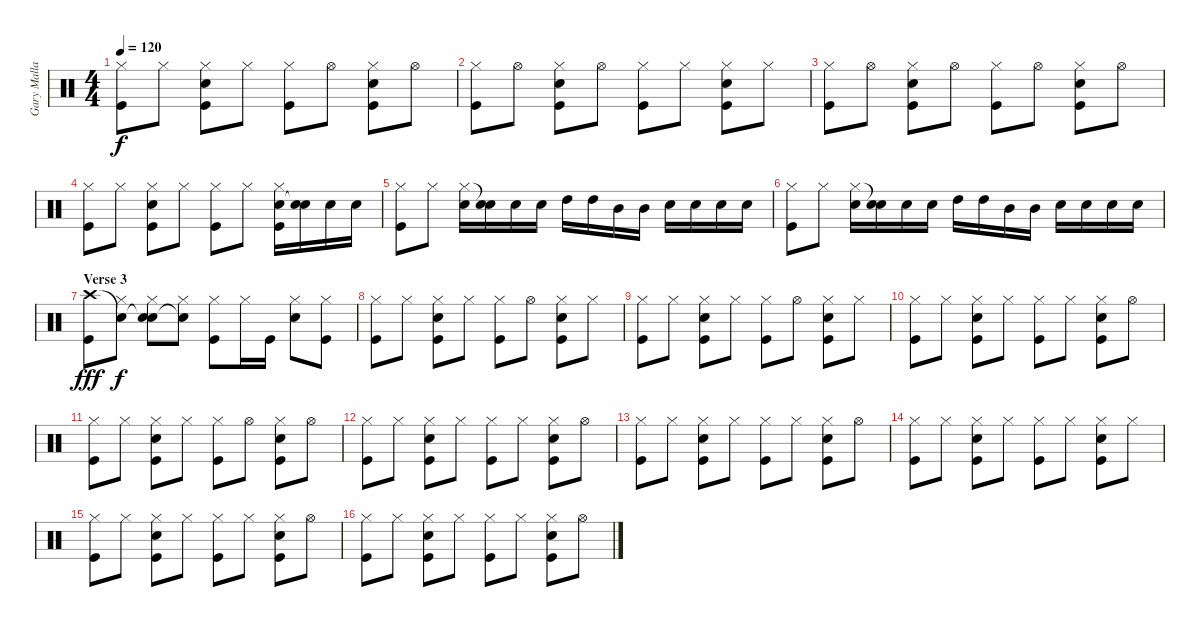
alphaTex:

\track ("Gary Mallaber" "Gary Malla") {instrument percussion}
\staff {score}
\articulation defaults
\ts (4 4)
\tempo 120
\clef neutral
\ks c
("Hi-Hat (closed)" "Kick (hit)").8{dy f} "Hi-Hat (closed)".8 ("Hi-Hat (closed)" "Snare (hit) 2" "Kick (hit)").8 "Hi-Hat (closed)".8 ("Hi-Hat (closed)" "Kick (hit)").8 "Hi-Hat (open)".8 ("Hi-Hat (closed)" "Snare (hit) 2" "Kick (hit)").8 "Hi-Hat (open)".8 |
("Hi-Hat (closed)" "Kick (hit)").8 "Hi-Hat (open)".8 ("Hi-Hat (closed)" "Snare (hit) 2" "Kick (hit)").8 "Hi-Hat (open)".8 ("Hi-Hat (closed)" "Kick (hit)").8 "Hi-Hat (closed)".8 ("Hi-Hat (closed)" "Snare (hit) 2" "Kick (hit)").8 "Hi-Hat (closed)".8 |
("Hi-Hat (closed)" "Kick (hit)").8 "Hi-Hat (open)".8 ("Hi-Hat (closed)" "Snare (hit) 2" "Kick (hit)").8 "Hi-Hat (open)".8 ("Hi-Hat (closed)" "Kick (hit)").8 "Hi-Hat (open)".8 ("Hi-Hat (closed)" "Snare (hit) 2" "Kick (hit)").8 "Hi-Hat (open)".8 |
("Hi-Hat (closed)" "Kick (hit)").8 "Hi-Hat (closed)".8 ("Hi-Hat (closed)" "Snare (hit) 2" "Kick (hit)").8 "Hi-Hat (closed)".8 ("Hi-Hat (closed)" "Kick (hit)").8 "Hi-Hat (closed)".8 ("Hi-Hat (closed)" "Snare (hit) 2" "Kick (hit)").16 ("Snare (hit) 2" "Snare (hit)"{t}).16 "Snare (hit) 2".16 "Snare (hit) 2".16 |
("Hi-Hat (closed)" "Kick (hit)").8 "Hi-Hat (closed)".8 ("Hi-Hat (closed)" "Snare (hit) 2").16 ("Snare (hit)"{t} "Snare (hit) 2").16 "Snare (hit) 2".16 "Snare (hit) 2".16 "High Tom (hit)".16 "High Tom (hit)".16 "Mid Tom (hit)".16 "Mid Tom (hit)".16 "Snare (hit) 2".16 "Snare (hit) 2".16 "Snare (hit) 2".16 "Snare (hit) 2".16 |
("Hi-Hat (closed)" "Kick (hit)").8 "Hi-Hat (closed)".8 ("Hi-Hat (closed)" "Snare (hit) 2").16 ("Snare (hit)"{t} "Snare (hit) 2").16 "Snare (hit) 2".16 "Snare (hit) 2".16 "High Tom (hit)".16 "High Tom (hit)".16 "Mid Tom (hit)".16 "Mid Tom (hit)".16 "Snare (hit) 2".16 "Snare (hit) 2".16 "Snare (hit) 2".16 "Snare (hit) 2".16 |
\section ("" "Verse 3")
("Crash high (hit)" "Kick (hit)").8{dy fff} ("Snare (hit)"{t} "Hi-Hat (closed)").8{dy f} ("Snare (hit)"{t} "Hi-Hat (closed)" "Snare (hit) 2").8 ("Snare (hit)"{t} "Hi-Hat (closed)").8 ("Hi-Hat (closed)" "Kick (hit)").8 "Hi-Hat (closed)".16 "Kick (hit)".16 ("Hi-Hat (closed)" "Snare (hit) 2").8 ("Hi-Hat (closed)" "Kick (hit)").8 |
("Hi-Hat (closed)" "Kick (hit)").8 "Hi-Hat (closed)".8 ("Hi-Hat (closed)" "Snare (hit) 2" "Kick (hit)").8 "Hi-Hat (closed)".8 ("Hi-Hat (closed)" "Kick (hit)").8 "Hi-Hat (open)".8 ("Hi-Hat (closed)" "Snare (hit) 2" "Kick (hit)").8 "Hi-Hat (closed)".8 |
("Hi-Hat (closed)" "Kick (hit)").8 "Hi-Hat (closed)".8 ("Hi-Hat (closed)" "Snare (hit) 2" "Kick (hit)").8 "Hi-Hat (closed)".8 ("Hi-Hat (closed)" "Kick (hit)").8 "Hi-Hat (open)".8 ("Hi-Hat (closed)" "Snare (hit) 2" "Kick (hit)").8 "Hi-Hat (closed)".8 |
("Hi-Hat (closed)" "Kick (hit)").8 "Hi-Hat (closed)".8 ("Hi-Hat (closed)" "Snare (hit) 2" "Kick (hit)").8 "Hi-Hat (closed)".8 ("Hi-Hat (closed)" "Kick (hit)").8 "Hi-Hat (closed)".8 ("Hi-Hat (closed)" "Snare (hit) 2" "Kick (hit)").8 "Hi-Hat (open)".8 |
("Hi-Hat (closed)" "Kick (hit)").8 "Hi-Hat (closed)".8 ("Hi-Hat (closed)" "Snare (hit) 2" "Kick (hit)").8 "Hi-Hat (closed)".8 ("Hi-Hat (closed)" "Kick (hit)").8 "Hi-Hat (open)".8 ("Hi-Hat (closed)" "Snare (hit) 2" "Kick (hit)").8 "Hi-Hat (open)".8 |
("Hi-Hat (closed)" "Kick (hit)").8 "Hi-Hat (closed)".8 ("Hi-Hat (closed)" "Snare (hit) 2" "Kick (hit)").8 "Hi-Hat (closed)".8 ("Hi-Hat (closed)" "Kick (hit)").8 "Hi-Hat (closed)".8 ("Hi-Hat (closed)" "Snare (hit) 2" "Kick (hit)").8 "Hi-Hat (open)".8 |
("Hi-Hat (closed)" "Kick (hit)").8 "Hi-Hat (closed)".8 ("Hi-Hat (closed)" "Snare (hit) 2" "Kick (hit)").8 "Hi-Hat (closed)".8 ("Hi-Hat (closed)" "Kick (hit)").8 "Hi-Hat (closed)".8 ("Hi-Hat (closed)" "Snare (hit) 2" "Kick (hit)").8 "Hi-Hat (open)".8 |
("Hi-Hat (closed)" "Kick (hit)").8 "Hi-Hat (closed)".8 ("Hi-Hat (closed)" "Snare (hit) 2" "Kick (hit)").8 "Hi-Hat (closed)".8 ("Hi-Hat (closed)" "Kick (hit)").8 "Hi-Hat (closed)".8 ("Hi-Hat (closed)" "Snare (hit) 2" "Kick (hit)").8 "Hi-Hat (closed)".8 |
("Hi-Hat (closed)" "Kick (hit)").8 "Hi-Hat (closed)".8 ("Hi-Hat (closed)" "Snare (hit) 2" "Kick (hit)").8 "Hi-Hat (closed)".8 ("Hi-Hat (closed)" "Kick (hit)").8 "Hi-Hat (closed)".8 ("Hi-Hat (closed)" "Snare (hit) 2" "Kick (hit)").8 "Hi-Hat (open)".8 |
("Hi-Hat (closed)" "Kick (hit)").8 "Hi-Hat (closed)".8 ("Hi-Hat (closed)" "Snare (hit) 2" "Kick (hit)").8 "Hi-Hat (closed)".8 ("Hi-Hat (closed)" "Kick (hit)").8 "Hi-Hat (closed)".8 ("Hi-Hat (closed)" "Snare (hit) 2" "Kick (hit)").8 "Hi-Hat (open)".8
